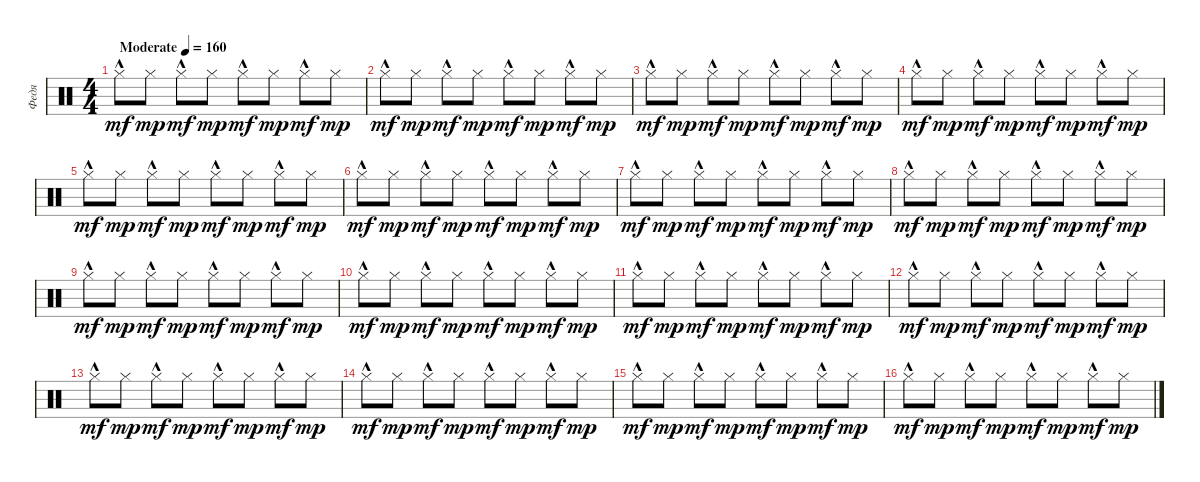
\track ("Федя" "Федя") {instrument percussion}
\staff {score}
\articulation defaults
\ts (4 4)
\tempo (160 "Moderate")
\clef neutral
\ks c "Hi-Hat (closed)"{hac}.8{dy mf} "Hi-Hat (closed)".8{dy mp} "Hi-Hat (closed)"{hac}.8{dy mf} "Hi-Hat (closed)".8{dy mp} "Hi-Hat (closed)"{hac}.8{dy mf} "Hi-Hat (closed)".8{dy mp} "Hi-Hat (closed)"{hac}.8{dy mf} "Hi-Hat (closed)".8{dy mp}
|
"Hi-Hat (closed)"{hac}.8{dy mf} "Hi-Hat (closed)".8{dy mp} "Hi-Hat (closed)"{hac}.8{dy mf} "Hi-Hat (closed)".8{dy mp} "Hi-Hat (closed)"{hac}.8{dy mf} "Hi-Hat (closed)".8{dy mp} "Hi-Hat (closed)"{hac}.8{dy mf} "Hi-Hat (closed)".8{dy mp} |
"Hi-Hat (closed)"{hac}.8{dy mf} "Hi-Hat (closed)".8{dy mp} "Hi-Hat (closed)"{hac}.8{dy mf} "Hi-Hat (closed)".8{dy mp} "Hi-Hat (closed)"{hac}.8{dy mf} "Hi-Hat (closed)".8{dy mp} "Hi-Hat (closed)"{hac}.8{dy mf} "Hi-Hat (closed)".8{dy mp} |
"Hi-Hat (closed)"{hac}.8{dy mf} "Hi-Hat (closed)".8{dy mp} "Hi-Hat (closed)"{hac}.8{dy mf} "Hi-Hat (closed)".8{dy mp} "Hi-Hat (closed)"{hac}.8{dy mf} "Hi-Hat (closed)".8{dy mp} "Hi-Hat (closed)"{hac}.8{dy mf} "Hi-Hat (closed)".8{dy mp} |
"Hi-Hat (closed)"{hac}.8{dy mf} "Hi-Hat (closed)".8{dy mp} "Hi-Hat (closed)"{hac}.8{dy mf} "Hi-Hat (closed)".8{dy mp} "Hi-Hat (closed)"{hac}.8{dy mf} "Hi-Hat (closed)".8{dy mp} "Hi-Hat (closed)"{hac}.8{dy mf} "Hi-Hat (closed)".8{dy mp} |
"Hi-Hat (closed)"{hac}.8{dy mf} "Hi-Hat (closed)".8{dy mp} "Hi-Hat (closed)"{hac}.8{dy mf} "Hi-Hat (closed)".8{dy mp} "Hi-Hat (closed)"{hac}.8{dy mf} "Hi-Hat (closed)".8{dy mp} "Hi-Hat (closed)"{hac}.8{dy mf} "Hi-Hat (closed)".8{dy mp} |
"Hi-Hat (closed)"{hac}.8{dy mf} "Hi-Hat (closed)".8{dy mp} "Hi-Hat (closed)"{hac}.8{dy mf} "Hi-Hat (closed)".8{dy mp} "Hi-Hat (closed)"{hac}.8{dy mf} "Hi-Hat (closed)".8{dy mp} "Hi-Hat (closed)"{hac}.8{dy mf} "Hi-Hat (closed)".8{dy mp} |
"Hi-Hat (closed)"{hac}.8{dy mf} "Hi-Hat (closed)".8{dy mp} "Hi-Hat (closed)"{hac}.8{dy mf} "Hi-Hat (closed)".8{dy mp} "Hi-Hat (closed)"{hac}.8{dy mf} "Hi-Hat (closed)".8{dy mp} "Hi-Hat (closed)"{hac}.8{dy mf} "Hi-Hat (closed)".8{dy mp} |
"Hi-Hat (closed)"{hac}.8{dy mf} "Hi-Hat (closed)".8{dy mp} "Hi-Hat (closed)"{hac}.8{dy mf} "Hi-Hat (closed)".8{dy mp} "Hi-Hat (closed)"{hac}.8{dy mf} "Hi-Hat (closed)".8{dy mp} "Hi-Hat (closed)"{hac}.8{dy mf} "Hi-Hat (closed)".8{dy mp} |
"Hi-Hat (closed)"{hac}.8{dy mf} "Hi-Hat (closed)".8{dy mp} "Hi-Hat (closed)"{hac}.8{dy mf} "Hi-Hat (closed)".8{dy mp} "Hi-Hat (closed)"{hac}.8{dy mf} "Hi-Hat (closed)".8{dy mp} "Hi-Hat (closed)"{hac}.8{dy mf} "Hi-Hat (closed)".8{dy mp} |
"Hi-Hat (closed)"{hac}.8{dy mf} "Hi-Hat (closed)".8{dy mp} "Hi-Hat (closed)"{hac}.8{dy mf} "Hi-Hat (closed)".8{dy mp} "Hi-Hat (closed)"{hac}.8{dy mf} "Hi-Hat (closed)".8{dy mp} "Hi-Hat (closed)"{hac}.8{dy mf} "Hi-Hat (closed)".8{dy mp} |
"Hi-Hat (closed)"{hac}.8{dy mf} "Hi-Hat (closed)".8{dy mp} "Hi-Hat (closed)"{hac}.8{dy mf} "Hi-Hat (closed)".8{dy mp} "Hi-Hat (closed)"{hac}.8{dy mf} "Hi-Hat (closed)".8{dy mp} "Hi-Hat (closed)"{hac}.8{dy mf} "Hi-Hat (closed)".8{dy mp} |
"Hi-Hat (closed)"{hac}.8{dy mf} "Hi-Hat (closed)".8{dy mp} "Hi-Hat (closed)"{hac}.8{dy mf} "Hi-Hat (closed)".8{dy mp} "Hi-Hat (closed)"{hac}.8{dy mf} "Hi-Hat (closed)".8{dy mp} "Hi-Hat (closed)"{hac}.8{dy mf} "Hi-Hat (closed)".8{dy mp} |
"Hi-Hat (closed)"{hac}.8{dy mf} "Hi-Hat (closed)".8{dy mp} "Hi-Hat (closed)"{hac}.8{dy mf} "Hi-Hat (closed)".8{dy mp} "Hi-Hat (closed)"{hac}.8{dy mf} "Hi-Hat (closed)".8{dy mp} "Hi-Hat (closed)"{hac}.8{dy mf} "Hi-Hat (closed)".8{dy mp} |
"Hi-Hat (closed)"{hac}.8{dy mf} "Hi-Hat (closed)".8{dy mp} "Hi-Hat (closed)"{hac}.8{dy mf} "Hi-Hat (closed)".8{dy mp} "Hi-Hat (closed)"{hac}.8{dy mf} "Hi-Hat (closed)".8{dy mp} "Hi-Hat (closed)"{hac}.8{dy mf} "Hi-Hat (closed)".8{dy mp} |
"Hi-Hat (closed)"{hac}.8{dy mf} "Hi-Hat (closed)".8{dy mp} "Hi-Hat (closed)"{hac}.8{dy mf} "Hi-Hat (closed)".8{dy mp} "Hi-Hat (closed)"{hac}.8{dy mf} "Hi-Hat (closed)".8{dy mp} "Hi-Hat (closed)"{hac}.8{dy mf} "Hi-Hat (closed)".8{dy mp}
